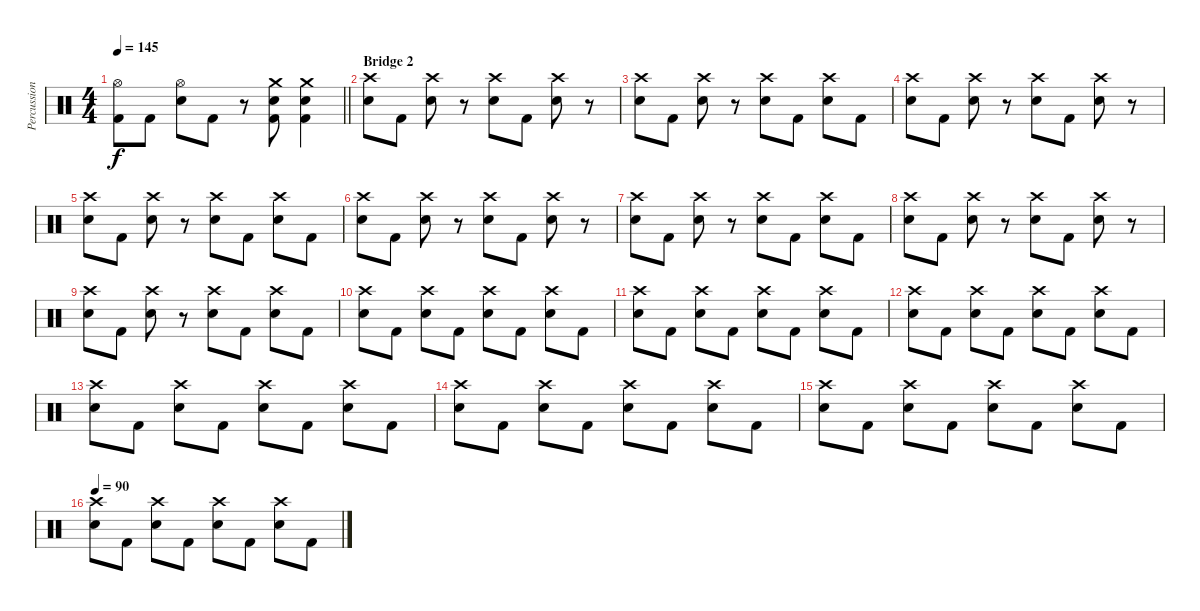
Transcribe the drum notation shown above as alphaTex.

\track ("Percussion" "Percussion") {instrument percussion}
\staff {score}
\articulation defaults
\ts (4 4)
\tempo 145
\clef neutral
\barLineRight lightlight
\ks c
("Hi-Hat (open)" "Kick (hit) 2").8{dy f} "Kick (hit) 2".8 ("Hi-Hat (open)" "Snare (hit) 2").8 "Kick (hit) 2".8 r.8 ("Crash medium (hit)" "Snare (hit) 2" "Kick (hit) 2").8 ("Crash medium (hit)" "Snare (hit) 2" "Kick (hit) 2").4 |
\section ("" "Bridge 2")
("Crash high (hit)" "Snare (hit) 2").8 "Kick (hit) 2".8 ("Crash high (hit)" "Snare (hit) 2").8 r.8 ("Crash high (hit)" "Snare (hit) 2").8 "Kick (hit) 2".8 ("Crash high (hit)" "Snare (hit) 2").8 r.8 |
("Crash high (hit)" "Snare (hit) 2").8 "Kick (hit) 2".8 ("Crash high (hit)" "Snare (hit) 2").8 r.8 ("Crash high (hit)" "Snare (hit) 2").8 "Kick (hit) 2".8 ("Crash high (hit)" "Snare (hit) 2").8 "Kick (hit) 2".8 |
("Crash high (hit)" "Snare (hit) 2").8 "Kick (hit) 2".8 ("Crash high (hit)" "Snare (hit) 2").8 r.8 ("Crash high (hit)" "Snare (hit) 2").8 "Kick (hit) 2".8 ("Crash high (hit)" "Snare (hit) 2").8 r.8 |
("Crash high (hit)" "Snare (hit) 2").8 "Kick (hit) 2".8 ("Crash high (hit)" "Snare (hit) 2").8 r.8 ("Crash high (hit)" "Snare (hit) 2").8 "Kick (hit) 2".8 ("Crash high (hit)" "Snare (hit) 2").8 "Kick (hit) 2".8 |
("Crash high (hit)" "Snare (hit) 2").8 "Kick (hit) 2".8 ("Crash high (hit)" "Snare (hit) 2").8 r.8 ("Crash high (hit)" "Snare (hit) 2").8 "Kick (hit) 2".8 ("Crash high (hit)" "Snare (hit) 2").8 r.8 |
("Crash high (hit)" "Snare (hit) 2").8 "Kick (hit) 2".8 ("Crash high (hit)" "Snare (hit) 2").8 r.8 ("Crash high (hit)" "Snare (hit) 2").8 "Kick (hit) 2".8 ("Crash high (hit)" "Snare (hit) 2").8 "Kick (hit) 2".8 |
("Crash high (hit)" "Snare (hit) 2").8 "Kick (hit) 2".8 ("Crash high (hit)" "Snare (hit) 2").8 r.8 ("Crash high (hit)" "Snare (hit) 2").8 "Kick (hit) 2".8 ("Crash high (hit)" "Snare (hit) 2").8 r.8 |
("Crash high (hit)" "Snare (hit) 2").8 "Kick (hit) 2".8 ("Crash high (hit)" "Snare (hit) 2").8 r.8 ("Crash high (hit)" "Snare (hit) 2").8 "Kick (hit) 2".8 ("Crash high (hit)" "Snare (hit) 2").8 "Kick (hit) 2".8 |
("Crash high (hit)" "Snare (hit) 2").8 "Kick (hit) 2".8 ("Crash high (hit)" "Snare (hit) 2").8 "Kick (hit) 2".8 ("Crash high (hit)" "Snare (hit) 2").8 "Kick (hit) 2".8 ("Crash high (hit)" "Snare (hit) 2").8 "Kick (hit) 2".8 |
("Crash high (hit)" "Snare (hit) 2").8 "Kick (hit) 2".8 ("Crash high (hit)" "Snare (hit) 2").8 "Kick (hit) 2".8 ("Crash high (hit)" "Snare (hit) 2").8 "Kick (hit) 2".8 ("Crash high (hit)" "Snare (hit) 2").8 "Kick (hit) 2".8 |
("Crash high (hit)" "Snare (hit) 2").8 "Kick (hit) 2".8 ("Crash high (hit)" "Snare (hit) 2").8 "Kick (hit) 2".8 ("Crash high (hit)" "Snare (hit) 2").8 "Kick (hit) 2".8 ("Crash high (hit)" "Snare (hit) 2").8 "Kick (hit) 2".8 |
("Crash high (hit)" "Snare (hit) 2").8 "Kick (hit) 2".8 ("Crash high (hit)" "Snare (hit) 2").8 "Kick (hit) 2".8 ("Crash high (hit)" "Snare (hit) 2").8 "Kick (hit) 2".8 ("Crash high (hit)" "Snare (hit) 2").8 "Kick (hit) 2".8 |
("Crash high (hit)" "Snare (hit) 2").8 "Kick (hit) 2".8 ("Crash high (hit)" "Snare (hit) 2").8 "Kick (hit) 2".8 ("Crash high (hit)" "Snare (hit) 2").8 "Kick (hit) 2".8 ("Crash high (hit)" "Snare (hit) 2").8 "Kick (hit) 2".8 |
("Crash high (hit)" "Snare (hit) 2").8 "Kick (hit) 2".8 ("Crash high (hit)" "Snare (hit) 2").8 "Kick (hit) 2".8 ("Crash high (hit)" "Snare (hit) 2").8 "Kick (hit) 2".8 ("Crash high (hit)" "Snare (hit) 2").8 "Kick (hit) 2".8 |
\tempo 90
("Crash high (hit)" "Snare (hit) 2").8 "Kick (hit) 2".8 ("Crash high (hit)" "Snare (hit) 2").8 "Kick (hit) 2".8 ("Crash high (hit)" "Snare (hit) 2").8 "Kick (hit) 2".8 ("Crash high (hit)" "Snare (hit) 2").8 "Kick (hit) 2".8
